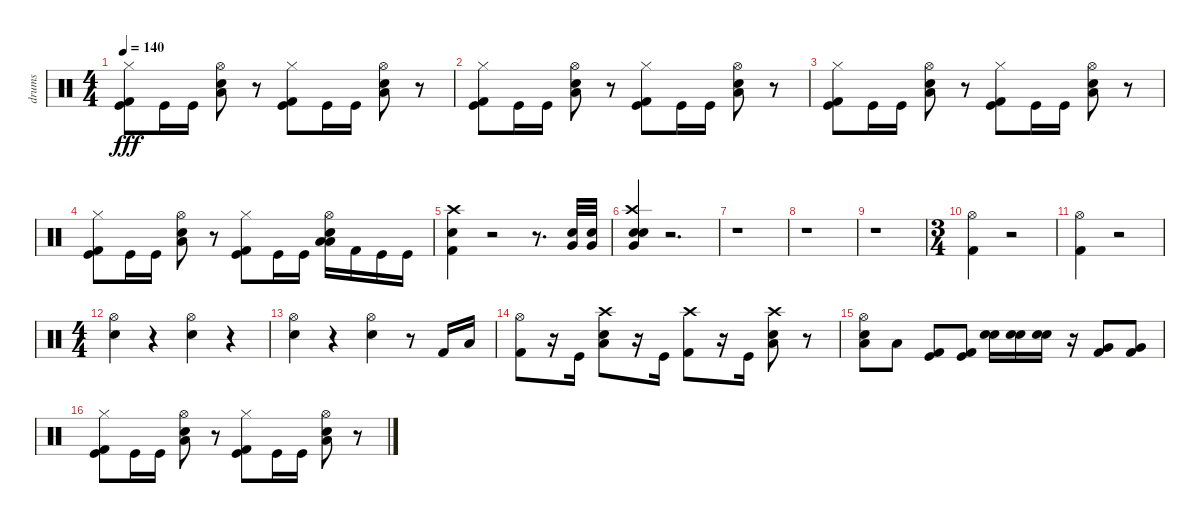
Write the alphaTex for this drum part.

\track ("drums" "drums") {instrument percussion}
\staff {score}
\articulation defaults
\ts (4 4)
\tempo 140
\clef neutral
\ks c
("Hi-Hat (closed)" "Kick (hit)" "Kick (hit) 2").8{dy fff} "Kick (hit)".16 "Kick (hit)".16 ("Hi-Hat (open)" "Low Tom (hit)" "Snare (hit) 2").8 r.8 ("Hi-Hat (closed)" "Kick (hit)" "Kick (hit) 2").8 "Kick (hit)".16 "Kick (hit)".16 ("Hi-Hat (open)" "Low Tom (hit)" "Snare (hit) 2").8 r.8 |
("Hi-Hat (closed)" "Kick (hit)" "Kick (hit) 2").8 "Kick (hit)".16 "Kick (hit)".16 ("Hi-Hat (open)" "Low Tom (hit)" "Snare (hit) 2").8 r.8 ("Hi-Hat (closed)" "Kick (hit)" "Kick (hit) 2").8 "Kick (hit)".16 "Kick (hit)".16 ("Hi-Hat (open)" "Low Tom (hit)" "Snare (hit) 2").8 r.8 |
("Hi-Hat (closed)" "Kick (hit)" "Kick (hit) 2").8 "Kick (hit)".16 "Kick (hit)".16 ("Hi-Hat (open)" "Low Tom (hit)" "Snare (hit) 2").8 r.8 ("Hi-Hat (closed)" "Kick (hit)" "Kick (hit) 2").8 "Kick (hit)".16 "Kick (hit)".16 ("Hi-Hat (open)" "Low Tom (hit)" "Snare (hit) 2").8 r.8 |
("Hi-Hat (closed)" "Kick (hit)" "Kick (hit) 2").8 "Kick (hit)".16 "Kick (hit)".16 ("Hi-Hat (open)" "Low Tom (hit)" "Snare (hit) 2").8 r.8 ("Hi-Hat (closed)" "Kick (hit)" "Kick (hit) 2").8 "Kick (hit)".16 "Kick (hit)".16 ("Low Floor Tom (hit)" "Hi-Hat (open)" "Low Tom (hit)" "Snare (hit) 2").16 "Kick (hit) 2".16 "Kick (hit)".16 "Kick (hit)".16 |
("Crash high (hit)" "Snare (hit) 2" "Kick (hit) 2").4 r.2 r.8{d} ("Electric Snare (hit)" "Very Low Tom (hit)").32 ("Electric Snare (hit)" "Very Low Tom (hit)").32 |
("Crash high (hit)" "Very Low Tom (hit)" "Snare (hit) 2" "Electric Snare (hit)").4 r.2{d} |
r.1 |
r.1 |
r.1 |
\ts (3 4)
("Hi-Hat (open)" "Kick (hit) 2").4 r.2 |
("Hi-Hat (open)" "Kick (hit) 2").4 r.2 |
\ts (4 4)
("Hi-Hat (open)" "Snare (hit) 2").4 r.4 ("Hi-Hat (open)" "Snare (hit) 2").4 r.4 |
("Hi-Hat (open)" "Snare (hit) 2").4 r.4 ("Hi-Hat (open)" "Snare (hit) 2").4 r.8 "Kick (hit) 2".16 "Low Floor Tom (hit)".16 |
("Kick (hit) 2" "Hi-Hat (open)").8 r.16 "Kick (hit)".16 ("Low Tom (hit)" "Snare (hit) 2" "Crash high (hit)").8 r.16 "Kick (hit)".16 ("Kick (hit) 2" "Crash high (hit)").8 r.16 "Kick (hit)".16 ("Low Tom (hit)" "Snare (hit) 2" "Crash high (hit)").8 r.8 |
("Hi-Hat (open)" "Snare (hit) 2" "Low Tom (hit)").8 "Low Floor Tom (hit)".8 ("Kick (hit)" "Kick (hit) 2").8 ("Kick (hit)" "Kick (hit) 2").8 ("Electric Snare (hit)" "Snare (hit) 2").16 ("Electric Snare (hit)" "Snare (hit) 2").16 ("Snare (hit) 2" "Electric Snare (hit)").16 r.16 ("Kick (hit) 2" "Very Low Tom (hit)").8 ("Kick (hit) 2" "Very Low Tom (hit)").8 |
("Hi-Hat (closed)" "Kick (hit)" "Kick (hit) 2").8 "Kick (hit)".16 "Kick (hit)".16 ("Hi-Hat (open)" "Low Tom (hit)" "Snare (hit) 2").8 r.8 ("Hi-Hat (closed)" "Kick (hit)" "Kick (hit) 2").8 "Kick (hit)".16 "Kick (hit)".16 ("Hi-Hat (open)" "Low Tom (hit)" "Snare (hit) 2").8 r.8
